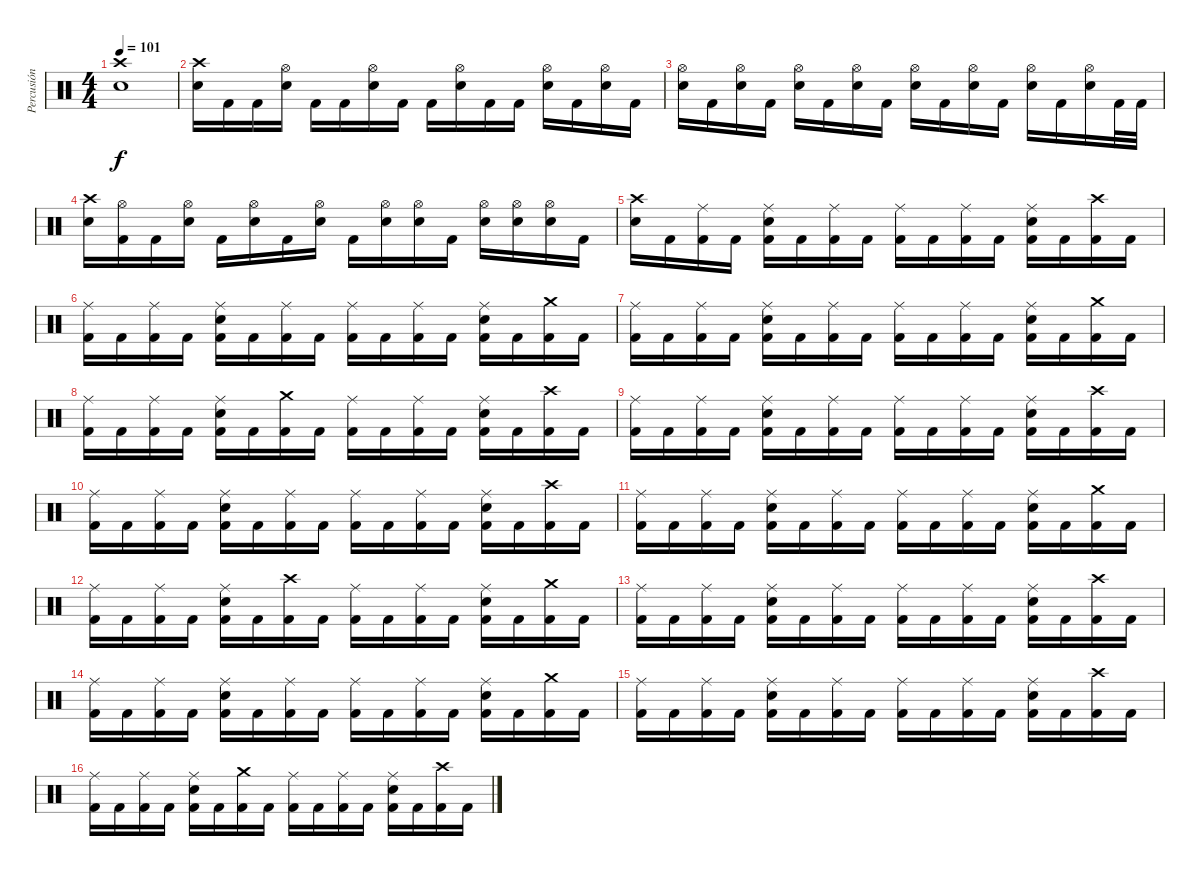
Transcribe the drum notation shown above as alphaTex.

\track ("Percusión" "Percusión") {instrument percussion}
\staff {score}
\articulation defaults
\ts (4 4)
\tempo 101
\clef neutral
\ks c
("Electric Snare (hit)" "Crash high (hit)").1{dy f} |
("Crash high (hit)" "Electric Snare (hit)").16 "Kick (hit) 2".16 "Kick (hit) 2".16 ("Hi-Hat (open)" "Electric Snare (hit)").16 "Kick (hit) 2".16 "Kick (hit) 2".16 ("Hi-Hat (open)" "Electric Snare (hit)").16 "Kick (hit) 2".16 "Kick (hit) 2".16 ("Hi-Hat (open)" "Electric Snare (hit)").16 "Kick (hit) 2".16 "Kick (hit) 2".16 ("Hi-Hat (open)" "Electric Snare (hit)").16 "Kick (hit) 2".16 ("Hi-Hat (open)" "Electric Snare (hit)").16 "Kick (hit) 2".16 |
("Hi-Hat (open)" "Electric Snare (hit)").16 "Kick (hit) 2".16 ("Hi-Hat (open)" "Electric Snare (hit)").16 "Kick (hit) 2".16 ("Hi-Hat (open)" "Electric Snare (hit)").16 "Kick (hit) 2".16 ("Hi-Hat (open)" "Electric Snare (hit)").16 "Kick (hit) 2".16 ("Hi-Hat (open)" "Electric Snare (hit)").16 "Kick (hit) 2".16 ("Hi-Hat (open)" "Electric Snare (hit)").16 "Kick (hit) 2".16 ("Hi-Hat (open)" "Electric Snare (hit)").16 "Kick (hit) 2".16 ("Hi-Hat (open)" "Electric Snare (hit)").16 "Kick (hit) 2".32 "Kick (hit) 2".32 |
("Crash high (hit)" "Electric Snare (hit)").16 ("Hi-Hat (open)" "Kick (hit) 2").16 "Kick (hit) 2".16 ("Hi-Hat (open)" "Electric Snare (hit)").16 "Kick (hit) 2".16 ("Hi-Hat (open)" "Electric Snare (hit)").16 "Kick (hit) 2".16 ("Hi-Hat (open)" "Electric Snare (hit)").16 "Kick (hit) 2".16 ("Hi-Hat (open)" "Electric Snare (hit)").16 ("Hi-Hat (open)" "Electric Snare (hit)").16 "Kick (hit) 2".16 ("Hi-Hat (open)" "Electric Snare (hit)").16 ("Hi-Hat (open)" "Electric Snare (hit)").16 ("Hi-Hat (open)" "Electric Snare (hit)").16 "Kick (hit) 2".16 |
("Crash high (hit)" "Electric Snare (hit)").16 "Kick (hit) 2".16 ("Ride (middle)" "Kick (hit) 2").16 "Kick (hit) 2".16 ("Ride (middle)" "Electric Snare (hit)" "Kick (hit) 2").16 "Kick (hit) 2".16 ("Ride (middle)" "Kick (hit) 2").16 "Kick (hit) 2".16 ("Ride (middle)" "Kick (hit) 2").16 "Kick (hit) 2".16 ("Ride (middle)" "Kick (hit) 2").16 "Kick (hit) 2".16 ("Ride (middle)" "Electric Snare (hit)" "Kick (hit) 2").16 "Kick (hit) 2".16 ("Crash high (hit)" "Kick (hit) 2").16 "Kick (hit) 2".16 |
("Ride (middle)" "Kick (hit) 2").16 "Kick (hit) 2".16 ("Ride (middle)" "Kick (hit) 2").16 "Kick (hit) 2".16 ("Ride (middle)" "Electric Snare (hit)" "Kick (hit) 2").16 "Kick (hit) 2".16 ("Ride (middle)" "Kick (hit) 2").16 "Kick (hit) 2".16 ("Ride (middle)" "Kick (hit) 2").16 "Kick (hit) 2".16 ("Ride (middle)" "Kick (hit) 2").16 "Kick (hit) 2".16 ("Ride (middle)" "Electric Snare (hit)" "Kick (hit) 2").16 "Kick (hit) 2".16 ("Crash medium (hit)" "Kick (hit) 2").16 "Kick (hit) 2".16 |
("Ride (middle)" "Kick (hit) 2").16 "Kick (hit) 2".16 ("Ride (middle)" "Kick (hit) 2").16 "Kick (hit) 2".16 ("Ride (middle)" "Electric Snare (hit)" "Kick (hit) 2").16 "Kick (hit) 2".16 ("Ride (middle)" "Kick (hit) 2").16 "Kick (hit) 2".16 ("Ride (middle)" "Kick (hit) 2").16 "Kick (hit) 2".16 ("Ride (middle)" "Kick (hit) 2").16 "Kick (hit) 2".16 ("Ride (middle)" "Electric Snare (hit)" "Kick (hit) 2").16 "Kick (hit) 2".16 ("Crash medium (hit)" "Kick (hit) 2").16 "Kick (hit) 2".16 |
("Ride (middle)" "Kick (hit) 2").16 "Kick (hit) 2".16 ("Ride (middle)" "Kick (hit) 2").16 "Kick (hit) 2".16 ("Electric Snare (hit)" "Ride (middle)" "Kick (hit) 2").16 "Kick (hit) 2".16 ("Crash medium (hit)" "Kick (hit) 2").16 "Kick (hit) 2".16 ("Ride (middle)" "Kick (hit) 2").16 "Kick (hit) 2".16 ("Ride (middle)" "Kick (hit) 2").16 "Kick (hit) 2".16 ("Electric Snare (hit)" "Ride (middle)" "Kick (hit) 2").16 "Kick (hit) 2".16 ("Crash high (hit)" "Kick (hit) 2").16 "Kick (hit) 2".16 |
("Ride (middle)" "Kick (hit) 2").16 "Kick (hit) 2".16 ("Ride (middle)" "Kick (hit) 2").16 "Kick (hit) 2".16 ("Ride (middle)" "Electric Snare (hit)" "Kick (hit) 2").16 "Kick (hit) 2".16 ("Ride (middle)" "Kick (hit) 2").16 "Kick (hit) 2".16 ("Ride (middle)" "Kick (hit) 2").16 "Kick (hit) 2".16 ("Ride (middle)" "Kick (hit) 2").16 "Kick (hit) 2".16 ("Ride (middle)" "Electric Snare (hit)" "Kick (hit) 2").16 "Kick (hit) 2".16 ("Crash high (hit)" "Kick (hit) 2").16 "Kick (hit) 2".16 |
("Ride (middle)" "Kick (hit) 2").16 "Kick (hit) 2".16 ("Ride (middle)" "Kick (hit) 2").16 "Kick (hit) 2".16 ("Ride (middle)" "Electric Snare (hit)" "Kick (hit) 2").16 "Kick (hit) 2".16 ("Ride (middle)" "Kick (hit) 2").16 "Kick (hit) 2".16 ("Ride (middle)" "Kick (hit) 2").16 "Kick (hit) 2".16 ("Ride (middle)" "Kick (hit) 2").16 "Kick (hit) 2".16 ("Ride (middle)" "Electric Snare (hit)" "Kick (hit) 2").16 "Kick (hit) 2".16 ("Crash high (hit)" "Kick (hit) 2").16 "Kick (hit) 2".16 |
("Ride (middle)" "Kick (hit) 2").16 "Kick (hit) 2".16 ("Ride (middle)" "Kick (hit) 2").16 "Kick (hit) 2".16 ("Ride (middle)" "Electric Snare (hit)" "Kick (hit) 2").16 "Kick (hit) 2".16 ("Ride (middle)" "Kick (hit) 2").16 "Kick (hit) 2".16 ("Ride (middle)" "Kick (hit) 2").16 "Kick (hit) 2".16 ("Ride (middle)" "Kick (hit) 2").16 "Kick (hit) 2".16 ("Ride (middle)" "Electric Snare (hit)" "Kick (hit) 2").16 "Kick (hit) 2".16 ("Crash medium (hit)" "Kick (hit) 2").16 "Kick (hit) 2".16 |
("Ride (middle)" "Kick (hit) 2").16 "Kick (hit) 2".16 ("Ride (middle)" "Kick (hit) 2").16 "Kick (hit) 2".16 ("Electric Snare (hit)" "Ride (middle)" "Kick (hit) 2").16 "Kick (hit) 2".16 ("Crash high (hit)" "Kick (hit) 2").16 "Kick (hit) 2".16 ("Ride (middle)" "Kick (hit) 2").16 "Kick (hit) 2".16 ("Ride (middle)" "Kick (hit) 2").16 "Kick (hit) 2".16 ("Electric Snare (hit)" "Ride (middle)" "Kick (hit) 2").16 "Kick (hit) 2".16 ("Crash medium (hit)" "Kick (hit) 2").16 "Kick (hit) 2".16 |
("Ride (middle)" "Kick (hit) 2").16 "Kick (hit) 2".16 ("Ride (middle)" "Kick (hit) 2").16 "Kick (hit) 2".16 ("Ride (middle)" "Electric Snare (hit)" "Kick (hit) 2").16 "Kick (hit) 2".16 ("Ride (middle)" "Kick (hit) 2").16 "Kick (hit) 2".16 ("Ride (middle)" "Kick (hit) 2").16 "Kick (hit) 2".16 ("Ride (middle)" "Kick (hit) 2").16 "Kick (hit) 2".16 ("Ride (middle)" "Electric Snare (hit)" "Kick (hit) 2").16 "Kick (hit) 2".16 ("Crash high (hit)" "Kick (hit) 2").16 "Kick (hit) 2".16 |
("Ride (middle)" "Kick (hit) 2").16 "Kick (hit) 2".16 ("Ride (middle)" "Kick (hit) 2").16 "Kick (hit) 2".16 ("Electric Snare (hit)" "Ride (middle)" "Kick (hit) 2").16 "Kick (hit) 2".16 ("Ride (middle)" "Kick (hit) 2").16 "Kick (hit) 2".16 ("Ride (middle)" "Kick (hit) 2").16 "Kick (hit) 2".16 ("Ride (middle)" "Kick (hit) 2").16 "Kick (hit) 2".16 ("Electric Snare (hit)" "Ride (middle)" "Kick (hit) 2").16 "Kick (hit) 2".16 ("Crash medium (hit)" "Kick (hit) 2").16 "Kick (hit) 2".16 |
("Ride (middle)" "Kick (hit) 2").16 "Kick (hit) 2".16 ("Ride (middle)" "Kick (hit) 2").16 "Kick (hit) 2".16 ("Electric Snare (hit)" "Ride (middle)" "Kick (hit) 2").16 "Kick (hit) 2".16 ("Ride (middle)" "Kick (hit) 2").16 "Kick (hit) 2".16 ("Ride (middle)" "Kick (hit) 2").16 "Kick (hit) 2".16 ("Ride (middle)" "Kick (hit) 2").16 "Kick (hit) 2".16 ("Electric Snare (hit)" "Ride (middle)" "Kick (hit) 2").16 "Kick (hit) 2".16 ("Crash high (hit)" "Kick (hit) 2").16 "Kick (hit) 2".16 |
("Ride (middle)" "Kick (hit) 2").16 "Kick (hit) 2".16 ("Ride (middle)" "Kick (hit) 2").16 "Kick (hit) 2".16 ("Ride (middle)" "Electric Snare (hit)" "Kick (hit) 2").16 "Kick (hit) 2".16 ("Crash medium (hit)" "Kick (hit) 2").16 "Kick (hit) 2".16 ("Ride (middle)" "Kick (hit) 2").16 "Kick (hit) 2".16 ("Ride (middle)" "Kick (hit) 2").16 "Kick (hit) 2".16 ("Ride (middle)" "Electric Snare (hit)" "Kick (hit) 2").16 "Kick (hit) 2".16 ("Crash high (hit)" "Kick (hit) 2").16 "Kick (hit) 2".16
